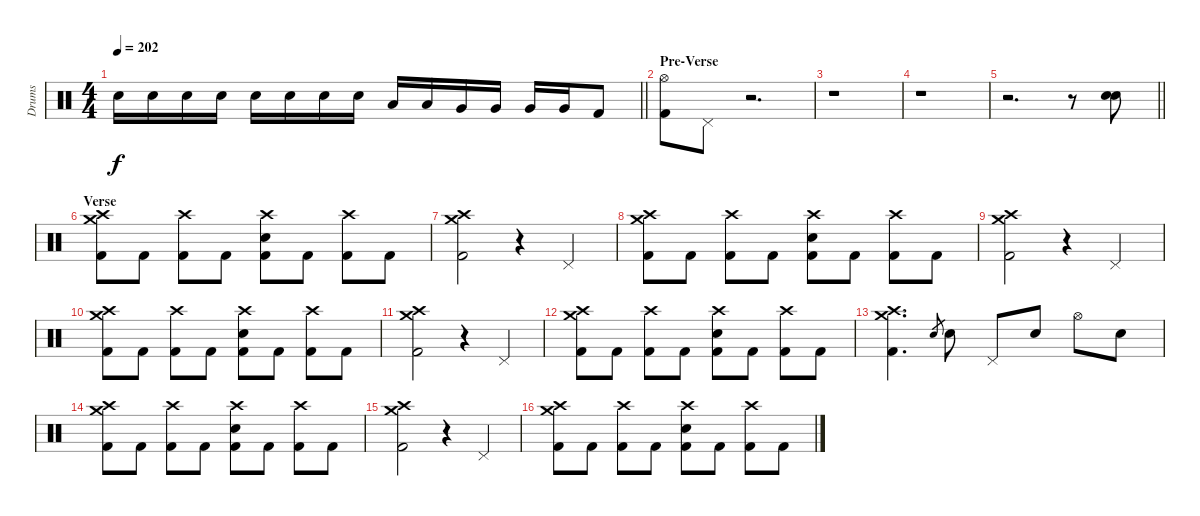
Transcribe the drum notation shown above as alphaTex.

\track ("Drums" "Drums") {instrument percussion}
\staff {score}
\articulation defaults
\ts (4 4)
\tempo 202
\clef neutral
\barLineRight lightlight
\ks c "Electric Snare (hit)".16{dy f} "Electric Snare (hit)".16 "Electric Snare (hit)".16 "Electric Snare (hit)".16 "Electric Snare (hit)".16 "Electric Snare (hit)".16 "Electric Snare (hit)".16 "Electric Snare (hit)".16 "Low Tom (hit)".16 "Low Tom (hit)".16 "Very Low Tom (hit)".16 "Very Low Tom (hit)".16 "Very Low Tom (hit)".16 "Very Low Tom (hit)".16 "Kick (hit) 2".8
|
\section ("" "Pre-Verse")
("Hi-Hat (open)" "Kick (hit) 2").8 "Pedal Hi-Hat (hit)".8 r.2{d} |
r.1 |
r.1 |
\barLineRight lightlight
r.2{d} r.8 ("Electric Snare (hit)" "Electric Snare (hit)").8 |
\section ("" "Verse")
("Crash medium (hit)" "Crash high (hit)" "Kick (hit) 2").8 "Kick (hit) 2".8 ("Crash high (hit)" "Kick (hit) 2").8 "Kick (hit) 2".8 ("Crash high (hit)" "Electric Snare (hit)" "Kick (hit) 2").8 "Kick (hit) 2".8 ("Crash high (hit)" "Kick (hit) 2").8 "Kick (hit) 2".8 |
("Crash medium (hit)" "Crash high (hit)" "Kick (hit) 2").2 r.4{volume 0} "Pedal Hi-Hat (hit)".4 |
("Crash medium (hit)" "Crash high (hit)" "Kick (hit) 2").8{volume 14} "Kick (hit) 2".8 ("Crash high (hit)" "Kick (hit) 2").8 "Kick (hit) 2".8 ("Crash high (hit)" "Electric Snare (hit)" "Kick (hit) 2").8 "Kick (hit) 2".8 ("Crash high (hit)" "Kick (hit) 2").8 "Kick (hit) 2".8 |
("Crash medium (hit)" "Crash high (hit)" "Kick (hit) 2").2 r.4{volume 0} "Pedal Hi-Hat (hit)".4 |
("Crash medium (hit)" "Crash high (hit)" "Kick (hit) 2").8{volume 14} "Kick (hit) 2".8 ("Crash high (hit)" "Kick (hit) 2").8 "Kick (hit) 2".8 ("Crash high (hit)" "Electric Snare (hit)" "Kick (hit) 2").8 "Kick (hit) 2".8 ("Crash high (hit)" "Kick (hit) 2").8 "Kick (hit) 2".8 |
("Crash medium (hit)" "Crash high (hit)" "Kick (hit) 2").2 r.4{volume 0} "Pedal Hi-Hat (hit)".4 |
("Crash medium (hit)" "Crash high (hit)" "Kick (hit) 2").8{volume 14} "Kick (hit) 2".8 ("Crash high (hit)" "Kick (hit) 2").8 "Kick (hit) 2".8 ("Crash high (hit)" "Electric Snare (hit)" "Kick (hit) 2").8 "Kick (hit) 2".8 ("Crash high (hit)" "Kick (hit) 2").8 "Kick (hit) 2".8 |
("Crash medium (hit)" "Crash high (hit)" "Kick (hit) 2").4{d} "Electric Snare (hit)".8{gr} "Electric Snare (hit)".8 "Pedal Hi-Hat (hit)".8 "Electric Snare (hit)".8 "Hi-Hat (open)".8 "Electric Snare (hit)".8 |
("Crash medium (hit)" "Crash high (hit)" "Kick (hit) 2").8 "Kick (hit) 2".8 ("Crash high (hit)" "Kick (hit) 2").8 "Kick (hit) 2".8 ("Crash high (hit)" "Electric Snare (hit)" "Kick (hit) 2").8 "Kick (hit) 2".8 ("Crash high (hit)" "Kick (hit) 2").8 "Kick (hit) 2".8 |
("Crash medium (hit)" "Crash high (hit)" "Kick (hit) 2").2 r.4{volume 0} "Pedal Hi-Hat (hit)".4 |
("Crash medium (hit)" "Crash high (hit)" "Kick (hit) 2").8{volume 14} "Kick (hit) 2".8 ("Crash high (hit)" "Kick (hit) 2").8 "Kick (hit) 2".8 ("Crash high (hit)" "Electric Snare (hit)" "Kick (hit) 2").8 "Kick (hit) 2".8 ("Crash high (hit)" "Kick (hit) 2").8 "Kick (hit) 2".8
